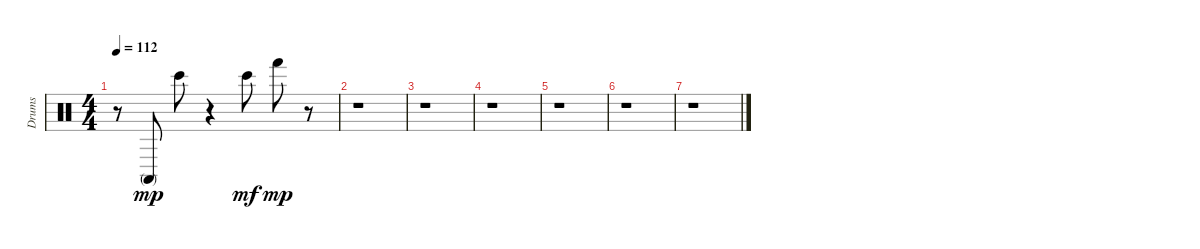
\track ("Drums" "Drums") {instrument percussion}
\staff {score}
\articulation defaults
\ts (4 4)
\tempo 112
\clef neutral
\ks c
r.8{dy mp} "Conga high (mute)".8 "Bongo High (hit)".8 r.4 "Bongo High (hit)".8{dy mf} "Hand (hit)".8{dy mp} r.8 |
r.1 |
r.1 |
r.1 |
r.1 |
r.1 |
r.1
